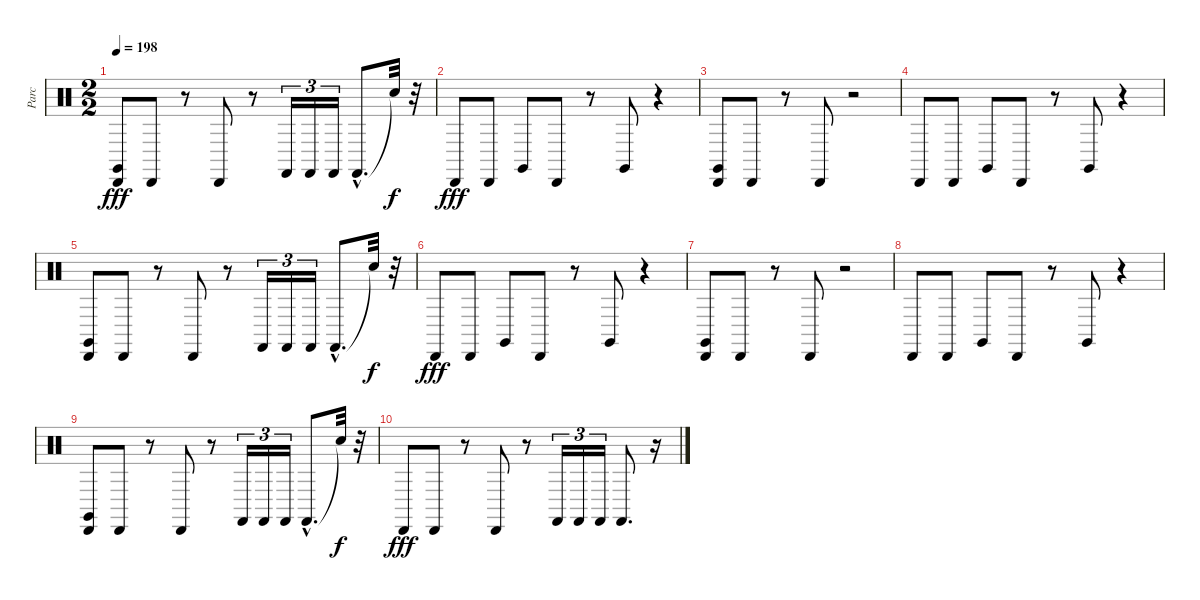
\track ("Parc" "Parc") {instrument percussion}
\staff {score}
\articulation defaults
\ts (2 2)
\tempo 198
\clef neutral
\ks c
("Cabasa (hit)" "Claves (hit)").8{dy fff} "Cabasa (hit)".8 r.8 "Cabasa (hit)".8 r.8 "Castanets (hit)".16{tu (3 2)} "Castanets (hit)".16{tu (3 2)} "Castanets (hit)".16{tu (3 2)} "Castanets (hit)"{hac}.8{d} "Snare (hit)"{t}.32{dy f} r.32 |
"Cabasa (hit)".8{dy fff} "Cabasa (hit)".8 "Claves (hit)".8 "Cabasa (hit)".8 r.8 "Claves (hit)".8 r.4 |
("Cabasa (hit)" "Claves (hit)").8 "Cabasa (hit)".8 r.8 "Cabasa (hit)".8 r.2 |
"Cabasa (hit)".8 "Cabasa (hit)".8 "Claves (hit)".8 "Cabasa (hit)".8 r.8 "Claves (hit)".8 r.4 |
("Cabasa (hit)" "Claves (hit)").8 "Cabasa (hit)".8 r.8 "Cabasa (hit)".8 r.8 "Castanets (hit)".16{tu (3 2)} "Castanets (hit)".16{tu (3 2)} "Castanets (hit)".16{tu (3 2)} "Castanets (hit)"{hac}.8{d} "Snare (hit)"{t}.32{dy f} r.32 |
"Cabasa (hit)".8{dy fff} "Cabasa (hit)".8 "Claves (hit)".8 "Cabasa (hit)".8 r.8 "Claves (hit)".8 r.4 |
("Cabasa (hit)" "Claves (hit)").8 "Cabasa (hit)".8 r.8 "Cabasa (hit)".8 r.2 |
"Cabasa (hit)".8 "Cabasa (hit)".8 "Claves (hit)".8 "Cabasa (hit)".8 r.8 "Claves (hit)".8 r.4 |
("Cabasa (hit)" "Claves (hit)").8 "Cabasa (hit)".8 r.8 "Cabasa (hit)".8 r.8 "Castanets (hit)".16{tu (3 2)} "Castanets (hit)".16{tu (3 2)} "Castanets (hit)".16{tu (3 2)} "Castanets (hit)"{hac}.8{d} "Snare (hit)"{t}.32{dy f} r.32 |
"Cabasa (hit)".8{dy fff} "Cabasa (hit)".8 r.8 "Cabasa (hit)".8 r.8 "Castanets (hit)".16{tu (3 2)} "Castanets (hit)".16{tu (3 2)} "Castanets (hit)".16{tu (3 2)} "Castanets (hit)".8{d} r.16
